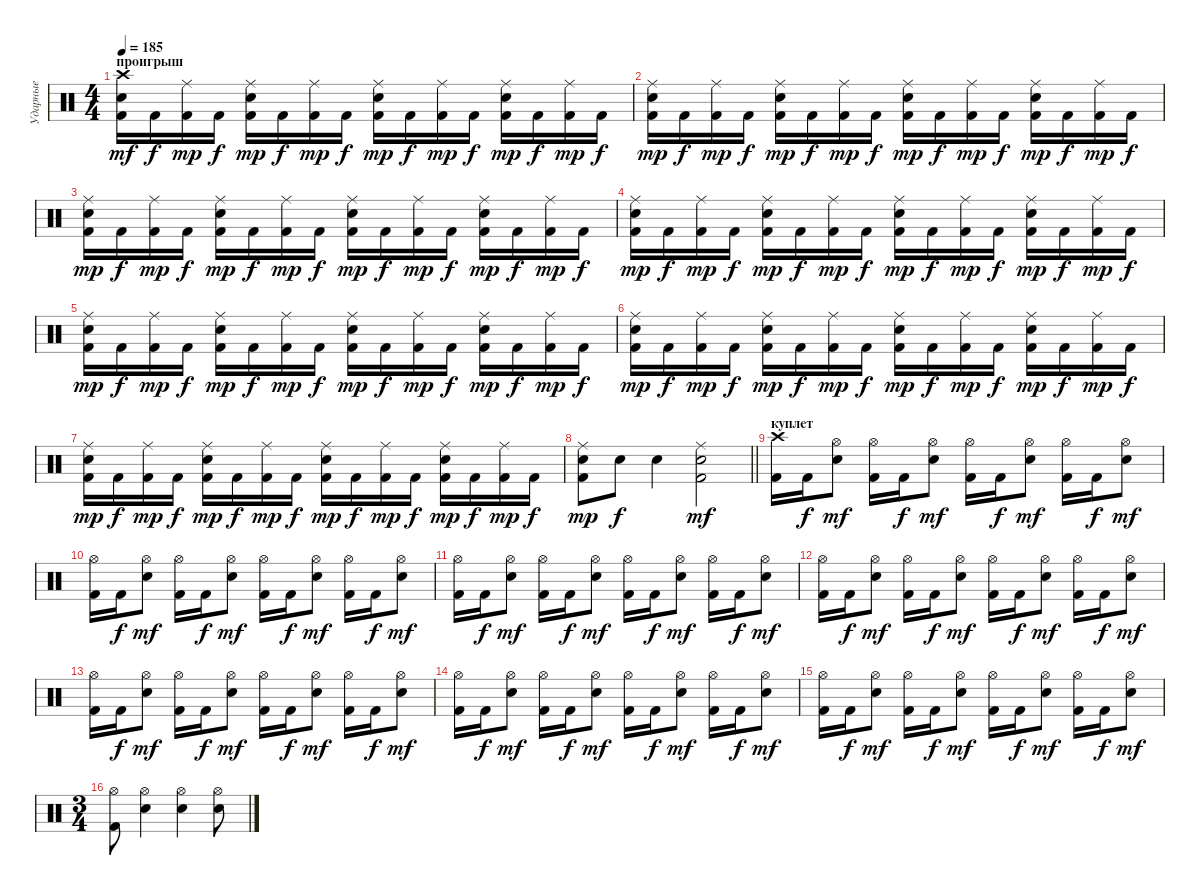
\track ("Ударные" "Ударные") {instrument percussion}
\staff {score}
\articulation defaults
\ts (4 4)
\section ("" "проигрыш")
\tempo 185
\clef neutral
\ks c
("Kick (hit) 2" "Electric Snare (hit)" "Crash high (hit)").16{dy mf} "Kick (hit) 2".16{dy f} ("Kick (hit) 2" "Ride (middle)").16{dy mp} "Kick (hit) 2".16{dy f} ("Kick (hit) 2" "Electric Snare (hit)" "Ride (middle)").16{dy mp} "Kick (hit) 2".16{dy f} ("Kick (hit) 2" "Ride (middle)").16{dy mp} "Kick (hit) 2".16{dy f} ("Kick (hit) 2" "Electric Snare (hit)" "Ride (middle)").16{dy mp} "Kick (hit) 2".16{dy f} ("Kick (hit) 2" "Ride (middle)").16{dy mp} "Kick (hit) 2".16{dy f} ("Kick (hit) 2" "Electric Snare (hit)" "Ride (middle)").16{dy mp} "Kick (hit) 2".16{dy f} ("Kick (hit) 2" "Ride (middle)").16{dy mp} "Kick (hit) 2".16{dy f} |
("Kick (hit) 2" "Electric Snare (hit)" "Ride (middle)").16{dy mp} "Kick (hit) 2".16{dy f} ("Kick (hit) 2" "Ride (middle)").16{dy mp} "Kick (hit) 2".16{dy f} ("Kick (hit) 2" "Electric Snare (hit)" "Ride (middle)").16{dy mp} "Kick (hit) 2".16{dy f} ("Kick (hit) 2" "Ride (middle)").16{dy mp} "Kick (hit) 2".16{dy f} ("Kick (hit) 2" "Electric Snare (hit)" "Ride (middle)").16{dy mp} "Kick (hit) 2".16{dy f} ("Kick (hit) 2" "Ride (middle)").16{dy mp} "Kick (hit) 2".16{dy f} ("Kick (hit) 2" "Electric Snare (hit)" "Ride (middle)").16{dy mp} "Kick (hit) 2".16{dy f} ("Kick (hit) 2" "Ride (middle)").16{dy mp} "Kick (hit) 2".16{dy f} |
("Kick (hit) 2" "Electric Snare (hit)" "Ride (middle)").16{dy mp} "Kick (hit) 2".16{dy f} ("Kick (hit) 2" "Ride (middle)").16{dy mp} "Kick (hit) 2".16{dy f} ("Kick (hit) 2" "Electric Snare (hit)" "Ride (middle)").16{dy mp} "Kick (hit) 2".16{dy f} ("Kick (hit) 2" "Ride (middle)").16{dy mp} "Kick (hit) 2".16{dy f} ("Kick (hit) 2" "Electric Snare (hit)" "Ride (middle)").16{dy mp} "Kick (hit) 2".16{dy f} ("Kick (hit) 2" "Ride (middle)").16{dy mp} "Kick (hit) 2".16{dy f} ("Kick (hit) 2" "Electric Snare (hit)" "Ride (middle)").16{dy mp} "Kick (hit) 2".16{dy f} ("Kick (hit) 2" "Ride (middle)").16{dy mp} "Kick (hit) 2".16{dy f} |
("Kick (hit) 2" "Electric Snare (hit)" "Ride (middle)").16{dy mp} "Kick (hit) 2".16{dy f} ("Kick (hit) 2" "Ride (middle)").16{dy mp} "Kick (hit) 2".16{dy f} ("Kick (hit) 2" "Electric Snare (hit)" "Ride (middle)").16{dy mp} "Kick (hit) 2".16{dy f} ("Kick (hit) 2" "Ride (middle)").16{dy mp} "Kick (hit) 2".16{dy f} ("Kick (hit) 2" "Electric Snare (hit)" "Ride (middle)").16{dy mp} "Kick (hit) 2".16{dy f} ("Kick (hit) 2" "Ride (middle)").16{dy mp} "Kick (hit) 2".16{dy f} ("Kick (hit) 2" "Electric Snare (hit)" "Ride (middle)").16{dy mp} "Kick (hit) 2".16{dy f} ("Kick (hit) 2" "Ride (middle)").16{dy mp} "Kick (hit) 2".16{dy f} |
("Kick (hit) 2" "Electric Snare (hit)" "Ride (middle)").16{dy mp} "Kick (hit) 2".16{dy f} ("Kick (hit) 2" "Ride (middle)").16{dy mp} "Kick (hit) 2".16{dy f} ("Kick (hit) 2" "Electric Snare (hit)" "Ride (middle)").16{dy mp} "Kick (hit) 2".16{dy f} ("Kick (hit) 2" "Ride (middle)").16{dy mp} "Kick (hit) 2".16{dy f} ("Kick (hit) 2" "Electric Snare (hit)" "Ride (middle)").16{dy mp} "Kick (hit) 2".16{dy f} ("Kick (hit) 2" "Ride (middle)").16{dy mp} "Kick (hit) 2".16{dy f} ("Kick (hit) 2" "Electric Snare (hit)" "Ride (middle)").16{dy mp} "Kick (hit) 2".16{dy f} ("Kick (hit) 2" "Ride (middle)").16{dy mp} "Kick (hit) 2".16{dy f} |
("Kick (hit) 2" "Electric Snare (hit)" "Ride (middle)").16{dy mp} "Kick (hit) 2".16{dy f} ("Kick (hit) 2" "Ride (middle)").16{dy mp} "Kick (hit) 2".16{dy f} ("Kick (hit) 2" "Electric Snare (hit)" "Ride (middle)").16{dy mp} "Kick (hit) 2".16{dy f} ("Kick (hit) 2" "Ride (middle)").16{dy mp} "Kick (hit) 2".16{dy f} ("Kick (hit) 2" "Electric Snare (hit)" "Ride (middle)").16{dy mp} "Kick (hit) 2".16{dy f} ("Kick (hit) 2" "Ride (middle)").16{dy mp} "Kick (hit) 2".16{dy f} ("Kick (hit) 2" "Electric Snare (hit)" "Ride (middle)").16{dy mp} "Kick (hit) 2".16{dy f} ("Kick (hit) 2" "Ride (middle)").16{dy mp} "Kick (hit) 2".16{dy f} |
("Kick (hit) 2" "Electric Snare (hit)" "Ride (middle)").16{dy mp} "Kick (hit) 2".16{dy f} ("Kick (hit) 2" "Ride (middle)").16{dy mp} "Kick (hit) 2".16{dy f} ("Kick (hit) 2" "Electric Snare (hit)" "Ride (middle)").16{dy mp} "Kick (hit) 2".16{dy f} ("Kick (hit) 2" "Ride (middle)").16{dy mp} "Kick (hit) 2".16{dy f} ("Kick (hit) 2" "Electric Snare (hit)" "Ride (middle)").16{dy mp} "Kick (hit) 2".16{dy f} ("Kick (hit) 2" "Ride (middle)").16{dy mp} "Kick (hit) 2".16{dy f} ("Kick (hit) 2" "Electric Snare (hit)" "Ride (middle)").16{dy mp} "Kick (hit) 2".16{dy f} ("Kick (hit) 2" "Ride (middle)").16{dy mp} "Kick (hit) 2".16{dy f} |
\barLineRight lightlight
("Kick (hit) 2" "Electric Snare (hit)" "Ride (middle)").8{dy mp} "Electric Snare (hit)".8{dy f} "Electric Snare (hit)".4 ("Kick (hit) 2" "Electric Snare (hit)" "Ride (middle)").2{dy mf} |
\section ("" "куплет")
("Kick (hit) 2" "Crash high (hit)").16 "Kick (hit) 2".16{dy f} ("Electric Snare (hit)" "Hi-Hat (open)").8{dy mf} ("Kick (hit) 2" "Hi-Hat (open)").16 "Kick (hit) 2".16{dy f} ("Electric Snare (hit)" "Hi-Hat (open)").8{dy mf} ("Kick (hit) 2" "Hi-Hat (open)").16 "Kick (hit) 2".16{dy f} ("Electric Snare (hit)" "Hi-Hat (open)").8{dy mf} ("Kick (hit) 2" "Hi-Hat (open)").16 "Kick (hit) 2".16{dy f} ("Electric Snare (hit)" "Hi-Hat (open)").8{dy mf} |
("Kick (hit) 2" "Hi-Hat (open)").16 "Kick (hit) 2".16{dy f} ("Electric Snare (hit)" "Hi-Hat (open)").8{dy mf} ("Kick (hit) 2" "Hi-Hat (open)").16 "Kick (hit) 2".16{dy f} ("Electric Snare (hit)" "Hi-Hat (open)").8{dy mf} ("Kick (hit) 2" "Hi-Hat (open)").16 "Kick (hit) 2".16{dy f} ("Electric Snare (hit)" "Hi-Hat (open)").8{dy mf} ("Kick (hit) 2" "Hi-Hat (open)").16 "Kick (hit) 2".16{dy f} ("Electric Snare (hit)" "Hi-Hat (open)").8{dy mf} |
("Kick (hit) 2" "Hi-Hat (open)").16 "Kick (hit) 2".16{dy f} ("Electric Snare (hit)" "Hi-Hat (open)").8{dy mf} ("Kick (hit) 2" "Hi-Hat (open)").16 "Kick (hit) 2".16{dy f} ("Electric Snare (hit)" "Hi-Hat (open)").8{dy mf} ("Kick (hit) 2" "Hi-Hat (open)").16 "Kick (hit) 2".16{dy f} ("Electric Snare (hit)" "Hi-Hat (open)").8{dy mf} ("Kick (hit) 2" "Hi-Hat (open)").16 "Kick (hit) 2".16{dy f} ("Electric Snare (hit)" "Hi-Hat (open)").8{dy mf} |
("Kick (hit) 2" "Hi-Hat (open)").16 "Kick (hit) 2".16{dy f} ("Electric Snare (hit)" "Hi-Hat (open)").8{dy mf} ("Kick (hit) 2" "Hi-Hat (open)").16 "Kick (hit) 2".16{dy f} ("Electric Snare (hit)" "Hi-Hat (open)").8{dy mf} ("Kick (hit) 2" "Hi-Hat (open)").16 "Kick (hit) 2".16{dy f} ("Electric Snare (hit)" "Hi-Hat (open)").8{dy mf} ("Kick (hit) 2" "Hi-Hat (open)").16 "Kick (hit) 2".16{dy f} ("Electric Snare (hit)" "Hi-Hat (open)").8{dy mf} |
("Kick (hit) 2" "Hi-Hat (open)").16 "Kick (hit) 2".16{dy f} ("Electric Snare (hit)" "Hi-Hat (open)").8{dy mf} ("Kick (hit) 2" "Hi-Hat (open)").16 "Kick (hit) 2".16{dy f} ("Electric Snare (hit)" "Hi-Hat (open)").8{dy mf} ("Kick (hit) 2" "Hi-Hat (open)").16 "Kick (hit) 2".16{dy f} ("Electric Snare (hit)" "Hi-Hat (open)").8{dy mf} ("Kick (hit) 2" "Hi-Hat (open)").16 "Kick (hit) 2".16{dy f} ("Electric Snare (hit)" "Hi-Hat (open)").8{dy mf} |
("Kick (hit) 2" "Hi-Hat (open)").16 "Kick (hit) 2".16{dy f} ("Electric Snare (hit)" "Hi-Hat (open)").8{dy mf} ("Kick (hit) 2" "Hi-Hat (open)").16 "Kick (hit) 2".16{dy f} ("Electric Snare (hit)" "Hi-Hat (open)").8{dy mf} ("Kick (hit) 2" "Hi-Hat (open)").16 "Kick (hit) 2".16{dy f} ("Electric Snare (hit)" "Hi-Hat (open)").8{dy mf} ("Kick (hit) 2" "Hi-Hat (open)").16 "Kick (hit) 2".16{dy f} ("Electric Snare (hit)" "Hi-Hat (open)").8{dy mf} |
("Kick (hit) 2" "Hi-Hat (open)").16 "Kick (hit) 2".16{dy f} ("Electric Snare (hit)" "Hi-Hat (open)").8{dy mf} ("Kick (hit) 2" "Hi-Hat (open)").16 "Kick (hit) 2".16{dy f} ("Electric Snare (hit)" "Hi-Hat (open)").8{dy mf} ("Kick (hit) 2" "Hi-Hat (open)").16 "Kick (hit) 2".16{dy f} ("Electric Snare (hit)" "Hi-Hat (open)").8{dy mf} ("Kick (hit) 2" "Hi-Hat (open)").16 "Kick (hit) 2".16{dy f} ("Electric Snare (hit)" "Hi-Hat (open)").8{dy mf} |
\ts (3 4)
("Kick (hit) 2" "Hi-Hat (open)").8 ("Electric Snare (hit)" "Hi-Hat (open)").4 ("Electric Snare (hit)" "Hi-Hat (open)").4 ("Electric Snare (hit)" "Hi-Hat (open)").8
